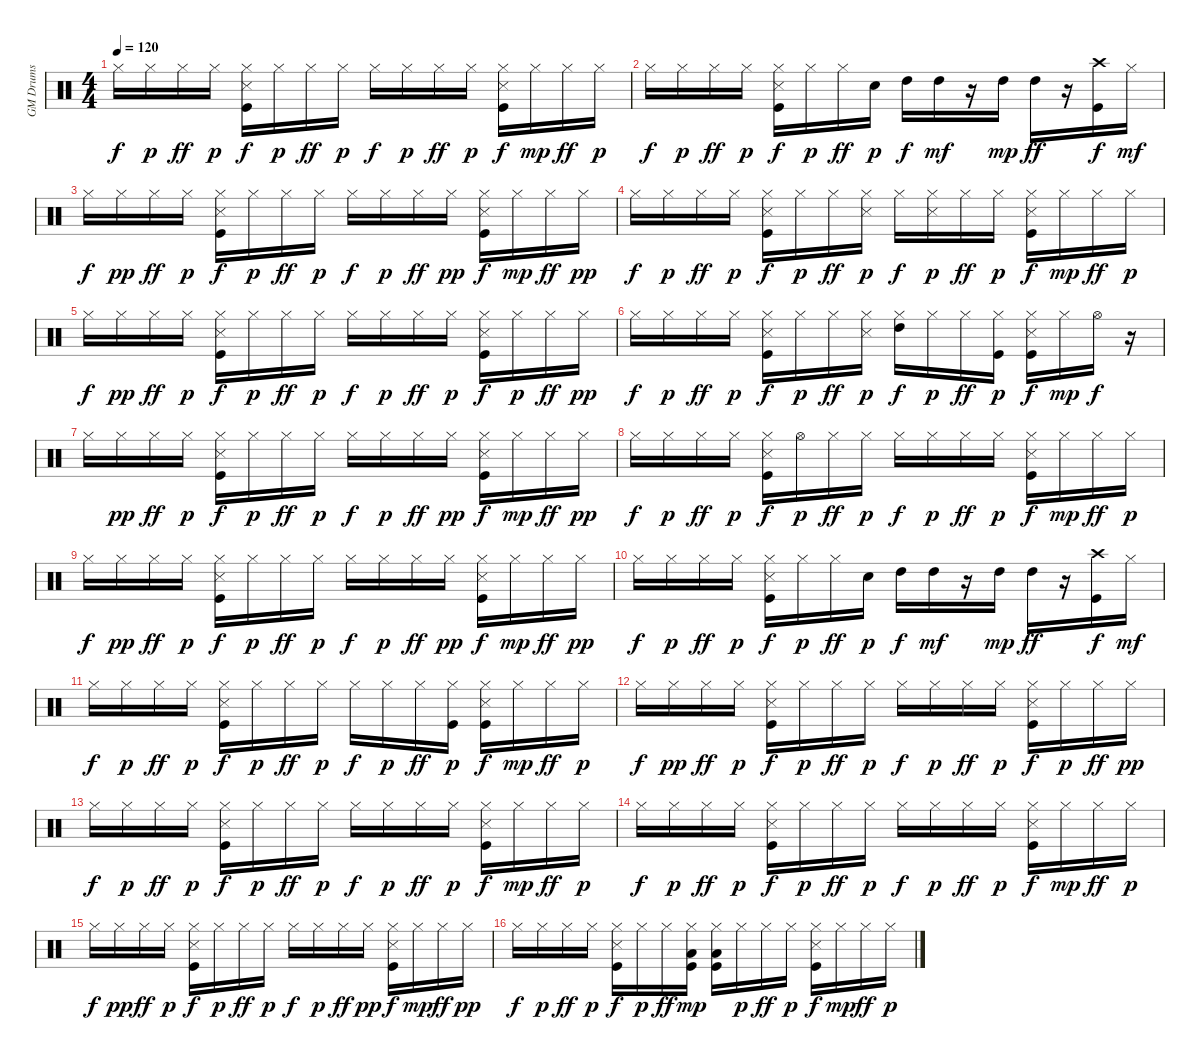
\track ("GM Drums" "GM Drums") {instrument percussion}
\staff {score}
\articulation defaults
\ts (4 4)
\tempo 120
\clef neutral
\ks c "Hi-Hat (closed)".16{dy f} "Hi-Hat (closed)".16{dy p} "Hi-Hat (closed)".16{dy ff} "Hi-Hat (closed)".16{dy p}
("Kick (hit)" "Snare (side stick) 3" "Hi-Hat (closed)").16{dy f} "Hi-Hat (closed)".16{dy p} "Hi-Hat (closed)".16{dy ff} "Hi-Hat (closed)".16{dy p} "Hi-Hat (closed)".16{dy f} "Hi-Hat (closed)".16{dy p} "Hi-Hat (closed)".16{dy ff} "Hi-Hat (closed)".16{dy p} ("Kick (hit)" "Snare (side stick) 3" "Hi-Hat (closed)").16{dy f} "Hi-Hat (closed)".16{dy mp} "Hi-Hat (closed)".16{dy ff} "Hi-Hat (closed)".16{dy p} |
"Hi-Hat (closed)".16{dy f} "Hi-Hat (closed)".16{dy p} "Hi-Hat (closed)".16{dy ff} "Hi-Hat (closed)".16{dy p} ("Kick (hit)" "Snare (side stick) 3" "Hi-Hat (closed)").16{dy f} "Hi-Hat (closed)".16{dy p} "Hi-Hat (closed)".16{dy ff} "Snare (hit) 2".16{dy p} "High Tom (hit)".16{dy f} "High Tom (hit)".16{dy mf} r.16 "High Tom (hit)".16{dy mp} "High Tom (hit)".16{dy ff} r.16 ("Kick (hit)" "Crash high (hit)").16{dy f} "Hi-Hat (closed)".16{dy mf} |
"Hi-Hat (closed)".16{dy f} "Hi-Hat (closed)".16{dy pp} "Hi-Hat (closed)".16{dy ff} "Hi-Hat (closed)".16{dy p} ("Kick (hit)" "Snare (side stick) 3" "Hi-Hat (closed)").16{dy f} "Hi-Hat (closed)".16{dy p} "Hi-Hat (closed)".16{dy ff} "Hi-Hat (closed)".16{dy p} "Hi-Hat (closed)".16{dy f} "Hi-Hat (closed)".16{dy p} "Hi-Hat (closed)".16{dy ff} "Hi-Hat (closed)".16{dy pp} ("Kick (hit)" "Snare (side stick) 3" "Hi-Hat (closed)").16{dy f} "Hi-Hat (closed)".16{dy mp} "Hi-Hat (closed)".16{dy ff} "Hi-Hat (closed)".16{dy pp} |
"Hi-Hat (closed)".16{dy f} "Hi-Hat (closed)".16{dy p} "Hi-Hat (closed)".16{dy ff} "Hi-Hat (closed)".16{dy p} ("Kick (hit)" "Snare (side stick) 3" "Hi-Hat (closed)").16{dy f} "Hi-Hat (closed)".16{dy p} "Hi-Hat (closed)".16{dy ff} ("Snare (side stick) 3" "Hi-Hat (closed)").16{dy p} "Hi-Hat (closed)".16{dy f} ("Snare (side stick) 3" "Hi-Hat (closed)").16{dy p} "Hi-Hat (closed)".16{dy ff} "Hi-Hat (closed)".16{dy p} ("Kick (hit)" "Snare (side stick) 3" "Hi-Hat (closed)").16{dy f} "Hi-Hat (closed)".16{dy mp} "Hi-Hat (closed)".16{dy ff} "Hi-Hat (closed)".16{dy p} |
"Hi-Hat (closed)".16{dy f} "Hi-Hat (closed)".16{dy pp} "Hi-Hat (closed)".16{dy ff} "Hi-Hat (closed)".16{dy p} ("Kick (hit)" "Snare (side stick) 3" "Hi-Hat (closed)").16{dy f} "Hi-Hat (closed)".16{dy p} "Hi-Hat (closed)".16{dy ff} "Hi-Hat (closed)".16{dy p} "Hi-Hat (closed)".16{dy f} "Hi-Hat (closed)".16{dy p} "Hi-Hat (closed)".16{dy ff} "Hi-Hat (closed)".16{dy p} ("Kick (hit)" "Snare (side stick) 3" "Hi-Hat (closed)").16{dy f} "Hi-Hat (closed)".16{dy p} "Hi-Hat (closed)".16{dy ff} "Hi-Hat (closed)".16{dy pp} |
"Hi-Hat (closed)".16{dy f} "Hi-Hat (closed)".16{dy p} "Hi-Hat (closed)".16{dy ff} "Hi-Hat (closed)".16{dy p} ("Kick (hit)" "Snare (side stick) 3" "Hi-Hat (closed)").16{dy f} "Hi-Hat (closed)".16{dy p} "Hi-Hat (closed)".16{dy ff} ("Snare (side stick) 3" "Hi-Hat (closed)").16{dy p} ("Hi-Hat (closed)" "High Tom (hit)").16{dy f} "Hi-Hat (closed)".16{dy p} "Hi-Hat (closed)".16{dy ff} ("Kick (hit)" "Hi-Hat (closed)").16{dy p} ("Kick (hit)" "Snare (side stick) 3" "Hi-Hat (closed)").16{dy f} "Hi-Hat (closed)".16{dy mp} "Hi-Hat (open)".16{dy f} r.16 |
"Hi-Hat (closed)".16 "Hi-Hat (closed)".16{dy pp} "Hi-Hat (closed)".16{dy ff} "Hi-Hat (closed)".16{dy p} ("Kick (hit)" "Snare (side stick) 3" "Hi-Hat (closed)").16{dy f} "Hi-Hat (closed)".16{dy p} "Hi-Hat (closed)".16{dy ff} "Hi-Hat (closed)".16{dy p} "Hi-Hat (closed)".16{dy f} "Hi-Hat (closed)".16{dy p} "Hi-Hat (closed)".16{dy ff} "Hi-Hat (closed)".16{dy pp} ("Kick (hit)" "Snare (side stick) 3" "Hi-Hat (closed)").16{dy f} "Hi-Hat (closed)".16{dy mp} "Hi-Hat (closed)".16{dy ff} "Hi-Hat (closed)".16{dy pp} |
"Hi-Hat (closed)".16{dy f} "Hi-Hat (closed)".16{dy p} "Hi-Hat (closed)".16{dy ff} "Hi-Hat (closed)".16{dy p} ("Kick (hit)" "Snare (side stick) 3" "Hi-Hat (closed)").16{dy f} "Hi-Hat (open)".16{dy p} "Hi-Hat (closed)".16{dy ff} "Hi-Hat (closed)".16{dy p} "Hi-Hat (closed)".16{dy f} "Hi-Hat (closed)".16{dy p} "Hi-Hat (closed)".16{dy ff} "Hi-Hat (closed)".16{dy p} ("Kick (hit)" "Snare (side stick) 3" "Hi-Hat (closed)").16{dy f} "Hi-Hat (closed)".16{dy mp} "Hi-Hat (closed)".16{dy ff} "Hi-Hat (closed)".16{dy p} |
"Hi-Hat (closed)".16{dy f} "Hi-Hat (closed)".16{dy pp} "Hi-Hat (closed)".16{dy ff} "Hi-Hat (closed)".16{dy p} ("Kick (hit)" "Snare (side stick) 3" "Hi-Hat (closed)").16{dy f} "Hi-Hat (closed)".16{dy p} "Hi-Hat (closed)".16{dy ff} "Hi-Hat (closed)".16{dy p} "Hi-Hat (closed)".16{dy f} "Hi-Hat (closed)".16{dy p} "Hi-Hat (closed)".16{dy ff} "Hi-Hat (closed)".16{dy pp} ("Kick (hit)" "Snare (side stick) 3" "Hi-Hat (closed)").16{dy f} "Hi-Hat (closed)".16{dy mp} "Hi-Hat (closed)".16{dy ff} "Hi-Hat (closed)".16{dy pp} |
"Hi-Hat (closed)".16{dy f} "Hi-Hat (closed)".16{dy p} "Hi-Hat (closed)".16{dy ff} "Hi-Hat (closed)".16{dy p} ("Kick (hit)" "Snare (side stick) 3" "Hi-Hat (closed)").16{dy f} "Hi-Hat (closed)".16{dy p} "Hi-Hat (closed)".16{dy ff} "Snare (hit) 2".16{dy p} "High Tom (hit)".16{dy f} "High Tom (hit)".16{dy mf} r.16 "High Tom (hit)".16{dy mp} "High Tom (hit)".16{dy ff} r.16 ("Kick (hit)" "Crash high (hit)").16{dy f} "Hi-Hat (closed)".16{dy mf} |
"Hi-Hat (closed)".16{dy f} "Hi-Hat (closed)".16{dy p} "Hi-Hat (closed)".16{dy ff} "Hi-Hat (closed)".16{dy p} ("Kick (hit)" "Snare (side stick) 3" "Hi-Hat (closed)").16{dy f} "Hi-Hat (closed)".16{dy p} "Hi-Hat (closed)".16{dy ff} "Hi-Hat (closed)".16{dy p} "Hi-Hat (closed)".16{dy f} "Hi-Hat (closed)".16{dy p} "Hi-Hat (closed)".16{dy ff} ("Kick (hit)" "Hi-Hat (closed)").16{dy p} ("Kick (hit)" "Snare (side stick) 3" "Hi-Hat (closed)").16{dy f} "Hi-Hat (closed)".16{dy mp} "Hi-Hat (closed)".16{dy ff} "Hi-Hat (closed)".16{dy p} |
"Hi-Hat (closed)".16{dy f} "Hi-Hat (closed)".16{dy pp} "Hi-Hat (closed)".16{dy ff} "Hi-Hat (closed)".16{dy p} ("Kick (hit)" "Snare (side stick) 3" "Hi-Hat (closed)").16{dy f} "Hi-Hat (closed)".16{dy p} "Hi-Hat (closed)".16{dy ff} "Hi-Hat (closed)".16{dy p} "Hi-Hat (closed)".16{dy f} "Hi-Hat (closed)".16{dy p} "Hi-Hat (closed)".16{dy ff} "Hi-Hat (closed)".16{dy p} ("Kick (hit)" "Snare (side stick) 3" "Hi-Hat (closed)").16{dy f} "Hi-Hat (closed)".16{dy p} "Hi-Hat (closed)".16{dy ff} "Hi-Hat (closed)".16{dy pp} |
"Hi-Hat (closed)".16{dy f} "Hi-Hat (closed)".16{dy p} "Hi-Hat (closed)".16{dy ff} "Hi-Hat (closed)".16{dy p} ("Kick (hit)" "Snare (side stick) 3" "Hi-Hat (closed)").16{dy f} "Hi-Hat (closed)".16{dy p} "Hi-Hat (closed)".16{dy ff} "Hi-Hat (closed)".16{dy p} "Hi-Hat (closed)".16{dy f} "Hi-Hat (closed)".16{dy p} "Hi-Hat (closed)".16{dy ff} "Hi-Hat (closed)".16{dy p} ("Kick (hit)" "Snare (side stick) 3" "Hi-Hat (closed)").16{dy f} "Hi-Hat (closed)".16{dy mp} "Hi-Hat (closed)".16{dy ff} "Hi-Hat (closed)".16{dy p} |
"Hi-Hat (closed)".16{dy f} "Hi-Hat (closed)".16{dy p} "Hi-Hat (closed)".16{dy ff} "Hi-Hat (closed)".16{dy p} ("Kick (hit)" "Snare (side stick) 3" "Hi-Hat (closed)").16{dy f} "Hi-Hat (closed)".16{dy p} "Hi-Hat (closed)".16{dy ff} "Hi-Hat (closed)".16{dy p} "Hi-Hat (closed)".16{dy f} "Hi-Hat (closed)".16{dy p} "Hi-Hat (closed)".16{dy ff} "Hi-Hat (closed)".16{dy p} ("Kick (hit)" "Snare (side stick) 3" "Hi-Hat (closed)").16{dy f} "Hi-Hat (closed)".16{dy mp} "Hi-Hat (closed)".16{dy ff} "Hi-Hat (closed)".16{dy p} |
"Hi-Hat (closed)".16{dy f} "Hi-Hat (closed)".16{dy pp} "Hi-Hat (closed)".16{dy ff} "Hi-Hat (closed)".16{dy p} ("Kick (hit)" "Snare (side stick) 3" "Hi-Hat (closed)").16{dy f} "Hi-Hat (closed)".16{dy p} "Hi-Hat (closed)".16{dy ff} "Hi-Hat (closed)".16{dy p} "Hi-Hat (closed)".16{dy f} "Hi-Hat (closed)".16{dy p} "Hi-Hat (closed)".16{dy ff} "Hi-Hat (closed)".16{dy pp} ("Kick (hit)" "Snare (side stick) 3" "Hi-Hat (closed)").16{dy f} "Hi-Hat (closed)".16{dy mp} "Hi-Hat (closed)".16{dy ff} "Hi-Hat (closed)".16{dy pp} |
"Hi-Hat (closed)".16{dy f} "Hi-Hat (closed)".16{dy p} "Hi-Hat (closed)".16{dy ff} "Hi-Hat (closed)".16{dy p} ("Kick (hit)" "Snare (side stick) 3" "Hi-Hat (closed)").16{dy f} "Hi-Hat (closed)".16{dy p} "Hi-Hat (closed)".16{dy ff} ("Kick (hit)" "Hi-Hat (closed)" "Low Tom (hit)").16{dy mp} ("Kick (hit)" "Hi-Hat (closed)" "Low Tom (hit)").16 "Hi-Hat (closed)".16{dy p} "Hi-Hat (closed)".16{dy ff} "Hi-Hat (closed)".16{dy p} ("Kick (hit)" "Snare (side stick) 3" "Hi-Hat (closed)").16{dy f} "Hi-Hat (closed)".16{dy mp} "Hi-Hat (closed)".16{dy ff} "Hi-Hat (closed)".16{dy p}
